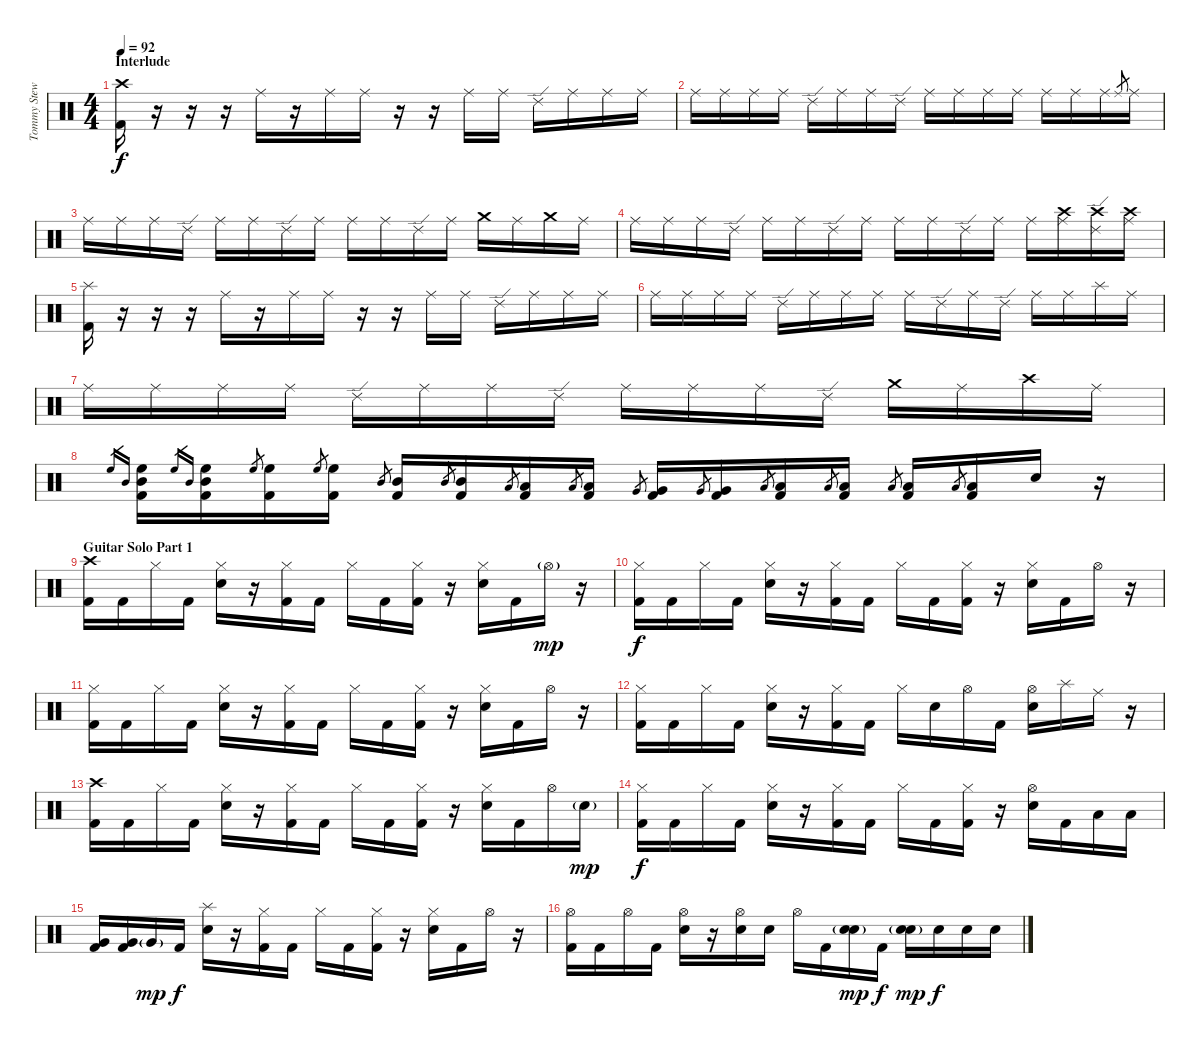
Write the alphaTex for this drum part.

\track ("Tommy Stewart - Drums" "Tommy Stew") {instrument percussion}
\staff {score}
\articulation defaults
\ts (4 4)
\section ("" "Interlude")
\tempo 92
\clef neutral
\ks c
("Crash high (hit)" "Kick (hit) 2").16{dy f} r.16 r.16 r.16 "Ride (middle)".16 r.16 "Ride (middle)".16 "Ride (middle)".16 r.16 r.16 "Ride (middle)".16 "Ride (middle)".16 "Ride (edge) 2".16 "Ride (middle)".16 "Ride (middle)".16 "Ride (middle)".16 |
"Ride (middle)".16 "Ride (middle)".16 "Ride (middle)".16 "Ride (middle)".16 "Ride (edge) 2".16 "Ride (middle)".16 "Ride (middle)".16 "Ride (edge) 2".16 "Ride (middle)".16 "Ride (middle)".16 "Ride (middle)".16 "Ride (middle)".16 "Ride (middle)".16 "Ride (middle)".16 "Ride (middle)".16 "Ride (middle)".8{gr} "Ride (middle)".16 |
"Ride (middle)".16 "Ride (middle)".16 "Ride (middle)".16 "Ride (edge) 2".16 "Ride (middle)".16 "Ride (middle)".16 "Ride (edge) 2".16 "Ride (middle)".16 "Ride (middle)".16 "Ride (middle)".16 "Ride (edge) 2".16 "Ride (middle)".16 "Crash medium (hit)".16 "Ride (middle)".16 "Crash medium (hit)".16 "Ride (middle)".16 |
"Ride (middle)".16 "Ride (middle)".16 "Ride (middle)".16 "Ride (edge) 2".16 "Ride (middle)".16 "Ride (middle)".16 "Ride (edge) 2".16 "Ride (middle)".16 "Ride (middle)".16 "Ride (middle)".16 "Ride (edge) 2".16 "Ride (middle)".16 "Ride (middle)".16 ("Crash high (hit)" "Ride (middle)").16 ("Crash high (hit)" "Ride (edge) 2").16 ("Crash high (hit)" "Ride (middle)").16 |
("Splash (hit)" "Kick (hit) 2").16 r.16 r.16 r.16 "Ride (middle)".16 r.16 "Ride (middle)".16 "Ride (middle)".16 r.16 r.16 "Ride (middle)".16 "Ride (middle)".16 "Ride (edge) 2".16 "Ride (middle)".16 "Ride (middle)".16 "Ride (middle)".16 |
"Ride (middle)".16 "Ride (middle)".16 "Ride (middle)".16 "Ride (middle)".16 "Ride (edge) 2".16 "Ride (middle)".16 "Ride (middle)".16 "Ride (middle)".16 "Ride (middle)".16 "Ride (edge) 2".16 "Ride (middle)".16 "Ride (edge) 2".16 "Ride (middle)".16 "Ride (middle)".16 "Splash (hit)".16 "Ride (middle)".16 |
"Ride (middle)".16 "Ride (middle)".16 "Ride (middle)".16 "Ride (middle)".16 "Ride (edge) 2".16 "Ride (middle)".16 "Ride (middle)".16 "Ride (edge) 2".16 "Ride (middle)".16 "Ride (middle)".16 "Ride (middle)".16 "Ride (edge) 2".16 "Crash medium (hit)".16 "Ride (middle)".16 "Crash high (hit)".16 "Ride (middle)".16 |
"High Floor Tom (hit)".16{gr} "Mid Tom (hit)".16{gr} ("High Floor Tom (hit)" "Mid Tom (hit)" "Kick (hit) 2").16 "High Floor Tom (hit)".16{gr} "Mid Tom (hit)".16{gr} ("High Floor Tom (hit)" "Mid Tom (hit)" "Kick (hit) 2").16 "High Floor Tom (hit)".8{gr} ("High Floor Tom (hit)" "Kick (hit) 2").16 "High Floor Tom (hit)".8{gr} ("High Floor Tom (hit)" "Kick (hit) 2").16 "Mid Tom (hit)".8{gr} ("Mid Tom (hit)" "Kick (hit) 2").16 "Mid Tom (hit)".8{gr} ("Mid Tom (hit)" "Kick (hit) 2").16 "Low Tom (hit)".8{gr} ("Low Tom (hit)" "Kick (hit) 2").16 "Low Tom (hit)".8{gr} ("Low Tom (hit)" "Kick (hit) 2").16 "Very Low Tom (hit)".8{gr} ("Very Low Tom (hit)" "Kick (hit) 2").16 "Very Low Tom (hit)".8{gr} ("Very Low Tom (hit)" "Kick (hit) 2").16 "Low Floor Tom (hit)".8{gr} ("Low Floor Tom (hit)" "Kick (hit) 2").16 "Low Floor Tom (hit)".8{gr} ("Low Floor Tom (hit)" "Kick (hit) 2").16 "Low Floor Tom (hit)".8{gr} ("Low Floor Tom (hit)" "Kick (hit) 2").16 "Low Floor Tom (hit)".8{gr} ("Low Floor Tom (hit)" "Kick (hit) 2").16 "Snare (hit) 2".16 r.16 |
\section ("" "Guitar Solo Part 1")
("Crash high (hit)" "Kick (hit) 2").16 "Kick (hit) 2".16 "Hi-Hat (closed)".16 "Kick (hit) 2".16 ("Hi-Hat (closed)" "Snare (hit) 2").16 r.16 ("Hi-Hat (closed)" "Kick (hit) 2").16 "Kick (hit) 2".16 "Hi-Hat (closed)".16 "Kick (hit) 2".16 ("Hi-Hat (closed)" "Kick (hit) 2").16 r.16 ("Hi-Hat (closed)" "Snare (hit) 2").16 "Kick (hit) 2".16 "Hi-Hat (open)"{g}.16{dy mp} r.16 |
("Hi-Hat (closed)" "Kick (hit) 2").16{dy f} "Kick (hit) 2".16 "Hi-Hat (closed)".16 "Kick (hit) 2".16 ("Hi-Hat (closed)" "Snare (hit) 2").16 r.16 ("Hi-Hat (closed)" "Kick (hit) 2").16 "Kick (hit) 2".16 "Hi-Hat (closed)".16 "Kick (hit) 2".16 ("Hi-Hat (closed)" "Kick (hit) 2").16 r.16 ("Hi-Hat (closed)" "Snare (hit) 2").16 "Kick (hit) 2".16 "Hi-Hat (open)".16 r.16 |
("Hi-Hat (closed)" "Kick (hit) 2").16 "Kick (hit) 2".16 "Hi-Hat (closed)".16 "Kick (hit) 2".16 ("Hi-Hat (closed)" "Snare (hit) 2").16 r.16 ("Hi-Hat (closed)" "Kick (hit) 2").16 "Kick (hit) 2".16 "Hi-Hat (closed)".16 "Kick (hit) 2".16 ("Hi-Hat (closed)" "Kick (hit) 2").16 r.16 ("Hi-Hat (closed)" "Snare (hit) 2").16 "Kick (hit) 2".16 "Hi-Hat (open)".16 r.16 |
("Hi-Hat (closed)" "Kick (hit) 2").16 "Kick (hit) 2".16 "Hi-Hat (closed)".16 "Kick (hit) 2".16 ("Hi-Hat (closed)" "Snare (hit) 2").16 r.16 ("Hi-Hat (closed)" "Kick (hit) 2").16 "Kick (hit) 2".16 "Hi-Hat (closed)".16 "Snare (hit) 2".16 "Hi-Hat (open)".16 "Kick (hit) 2".16 ("Hi-Hat (open)" "Snare (hit) 2").16 "Splash (hit)".16 "Ride (middle)".16 r.16 |
("Crash high (hit)" "Kick (hit) 2").16 "Kick (hit) 2".16 "Hi-Hat (closed)".16 "Kick (hit) 2".16 ("Hi-Hat (closed)" "Snare (hit) 2").16 r.16 ("Hi-Hat (closed)" "Kick (hit) 2").16 "Kick (hit) 2".16 "Hi-Hat (closed)".16 "Kick (hit) 2".16 ("Hi-Hat (closed)" "Kick (hit) 2").16 r.16 ("Hi-Hat (closed)" "Snare (hit) 2").16 "Kick (hit) 2".16 "Hi-Hat (open)".16 "Snare (hit) 2"{g}.16{dy mp} |
("Hi-Hat (closed)" "Kick (hit) 2").16{dy f} "Kick (hit) 2".16 "Hi-Hat (closed)".16 "Kick (hit) 2".16 ("Hi-Hat (closed)" "Snare (hit) 2").16 r.16 ("Hi-Hat (closed)" "Kick (hit) 2").16 "Kick (hit) 2".16 "Hi-Hat (closed)".16 "Kick (hit) 2".16 ("Hi-Hat (closed)" "Kick (hit) 2").16 r.16 ("Hi-Hat (open)" "Snare (hit) 2").16 "Kick (hit) 2".16 "Low Tom (hit)".16 "Low Tom (hit)".16 |
("Very Low Tom (hit)" "Kick (hit) 2").16 ("Very Low Tom (hit)" "Kick (hit) 2").16 "Very Low Tom (hit)"{g}.16{dy mp} "Kick (hit) 2".16{dy f} ("Splash (hit)" "Snare (hit) 2").16 r.16 ("Hi-Hat (closed)" "Kick (hit) 2").16 "Kick (hit) 2".16 "Hi-Hat (closed)".16 "Kick (hit) 2".16 ("Hi-Hat (closed)" "Kick (hit) 2").16 r.16 ("Hi-Hat (closed)" "Snare (hit) 2").16 "Kick (hit) 2".16 "Hi-Hat (open)".16 r.16 |
("Hi-Hat (open)" "Kick (hit) 2").16 "Kick (hit) 2".16 "Hi-Hat (open)".16 "Kick (hit) 2".16 ("Hi-Hat (open)" "Snare (hit) 2").16 r.16 ("Hi-Hat (open)" "Snare (hit) 2").16 "Snare (hit) 2".16 "Hi-Hat (open)".16 "Kick (hit) 2".16 ("Snare (hit) 2"{g} "Snare (hit) 2").16{dy mp} "Kick (hit) 2".16{dy f} ("Snare (hit) 2"{g} "Snare (hit) 2").16{dy mp} "Snare (hit) 2".16{dy f} "Snare (hit) 2".16 "Snare (hit) 2".16
